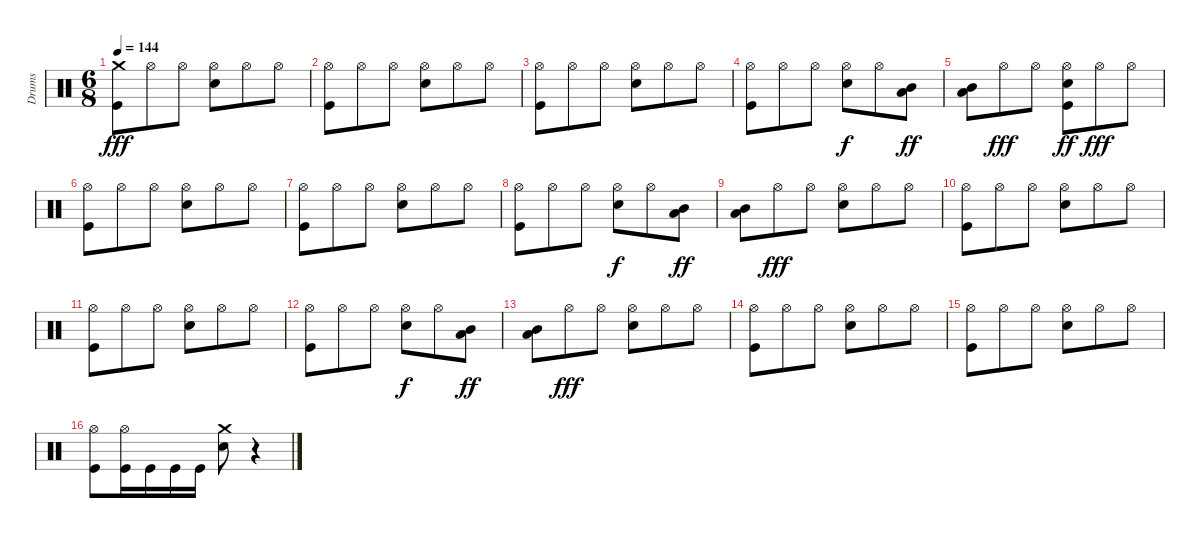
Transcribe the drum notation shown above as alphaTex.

\track ("Drums" "Drums") {instrument percussion}
\staff {score}
\articulation defaults
\ts (6 8)
\tempo 144
\clef neutral
\ks c
("Crash medium (hit)" "Kick (hit)").8{dy fff} "Hi-Hat (open)".8 "Hi-Hat (open)".8 ("Hi-Hat (open)" "Snare (hit) 2").8 "Hi-Hat (open)".8 "Hi-Hat (open)".8 |
("Hi-Hat (open)" "Kick (hit)").8 "Hi-Hat (open)".8 "Hi-Hat (open)".8 ("Hi-Hat (open)" "Snare (hit) 2").8 "Hi-Hat (open)".8 "Hi-Hat (open)".8 |
("Hi-Hat (open)" "Kick (hit)").8 "Hi-Hat (open)".8 "Hi-Hat (open)".8 ("Hi-Hat (open)" "Snare (hit) 2").8 "Hi-Hat (open)".8 "Hi-Hat (open)".8 |
("Hi-Hat (open)" "Kick (hit)").8 "Hi-Hat (open)".8 "Hi-Hat (open)".8 ("Hi-Hat (open)" "Snare (hit) 2").8{dy f} "Hi-Hat (open)".8 ("Low Tom (hit)" "Mid Tom (hit)").8{dy ff} |
("Low Tom (hit)" "Mid Tom (hit)").8 "Hi-Hat (open)".8{dy fff} "Hi-Hat (open)".8 ("Hi-Hat (open)" "Snare (hit) 2" "Kick (hit)").8{dy ff} "Hi-Hat (open)".8{dy fff} "Hi-Hat (open)".8 |
("Hi-Hat (open)" "Kick (hit)").8 "Hi-Hat (open)".8 "Hi-Hat (open)".8 ("Hi-Hat (open)" "Snare (hit) 2").8 "Hi-Hat (open)".8 "Hi-Hat (open)".8 |
("Hi-Hat (open)" "Kick (hit)").8 "Hi-Hat (open)".8 "Hi-Hat (open)".8 ("Hi-Hat (open)" "Snare (hit) 2").8 "Hi-Hat (open)".8 "Hi-Hat (open)".8 |
("Hi-Hat (open)" "Kick (hit)").8 "Hi-Hat (open)".8 "Hi-Hat (open)".8 ("Hi-Hat (open)" "Snare (hit) 2").8{dy f} "Hi-Hat (open)".8 ("Low Tom (hit)" "Mid Tom (hit)").8{dy ff} |
("Low Tom (hit)" "Mid Tom (hit)").8 "Hi-Hat (open)".8{dy fff} "Hi-Hat (open)".8 ("Hi-Hat (open)" "Snare (hit) 2").8 "Hi-Hat (open)".8 "Hi-Hat (open)".8 |
("Hi-Hat (open)" "Kick (hit)").8 "Hi-Hat (open)".8 "Hi-Hat (open)".8 ("Hi-Hat (open)" "Snare (hit) 2").8 "Hi-Hat (open)".8 "Hi-Hat (open)".8 |
("Hi-Hat (open)" "Kick (hit)").8 "Hi-Hat (open)".8 "Hi-Hat (open)".8 ("Hi-Hat (open)" "Snare (hit) 2").8 "Hi-Hat (open)".8 "Hi-Hat (open)".8 |
("Hi-Hat (open)" "Kick (hit)").8 "Hi-Hat (open)".8 "Hi-Hat (open)".8 ("Hi-Hat (open)" "Snare (hit) 2").8{dy f} "Hi-Hat (open)".8 ("Low Tom (hit)" "Mid Tom (hit)").8{dy ff} |
("Low Tom (hit)" "Mid Tom (hit)").8 "Hi-Hat (open)".8{dy fff} "Hi-Hat (open)".8 ("Hi-Hat (open)" "Snare (hit) 2").8 "Hi-Hat (open)".8 "Hi-Hat (open)".8 |
("Hi-Hat (open)" "Kick (hit)").8 "Hi-Hat (open)".8 "Hi-Hat (open)".8 ("Hi-Hat (open)" "Snare (hit) 2").8 "Hi-Hat (open)".8 "Hi-Hat (open)".8 |
("Hi-Hat (open)" "Kick (hit)").8 "Hi-Hat (open)".8 "Hi-Hat (open)".8 ("Hi-Hat (open)" "Snare (hit) 2").8 "Hi-Hat (open)".8 "Hi-Hat (open)".8 |
("Hi-Hat (open)" "Kick (hit)").8 ("Hi-Hat (open)" "Kick (hit)").16 "Kick (hit)".16 "Kick (hit)".16 "Kick (hit)".16 ("Crash medium (hit)" "Snare (hit) 2").8 r.4
